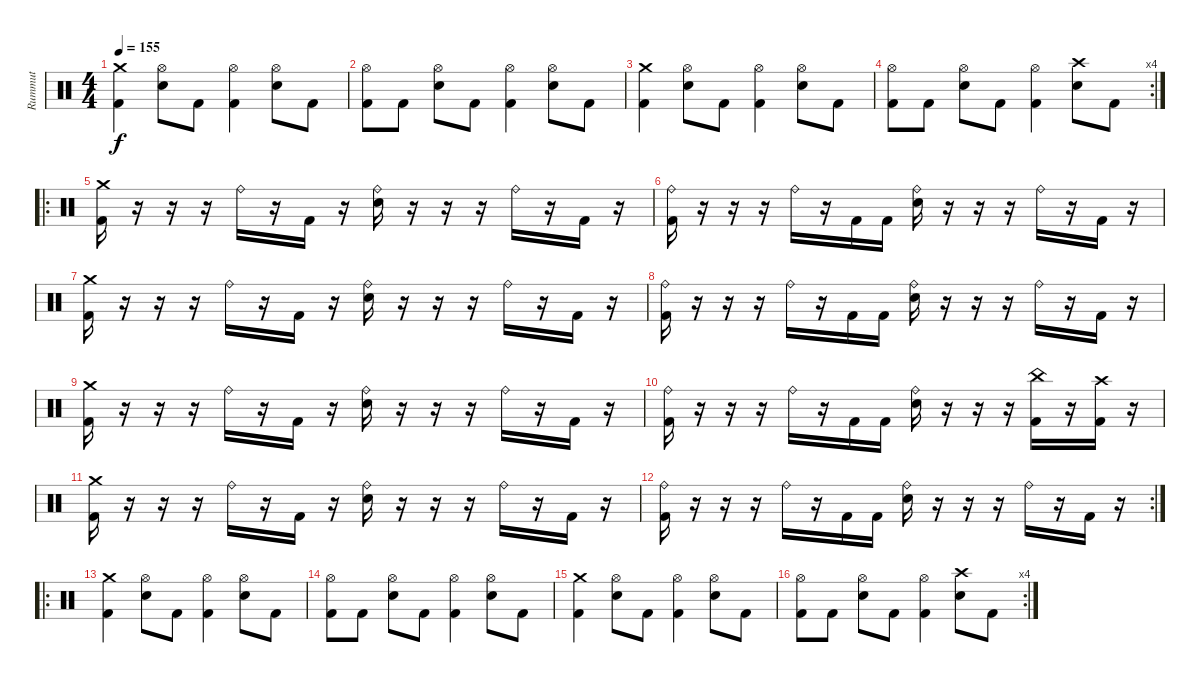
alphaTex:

\track ("Rummut" "Rummut") {instrument percussion}
\staff {score}
\articulation defaults
\ts (4 4)
\tempo 155
\clef neutral
\ks c
("Crash medium (hit)" "Kick (hit) 2").4{dy f} ("Hi-Hat (open)" "Electric Snare (hit)").8 "Kick (hit) 2".8 ("Hi-Hat (open)" "Kick (hit) 2").4 ("Hi-Hat (open)" "Electric Snare (hit)").8 "Kick (hit) 2".8 |
("Hi-Hat (open)" "Kick (hit) 2").8 "Kick (hit) 2".8 ("Hi-Hat (open)" "Electric Snare (hit)").8 "Kick (hit) 2".8 ("Hi-Hat (open)" "Kick (hit) 2").4 ("Hi-Hat (open)" "Electric Snare (hit)").8 "Kick (hit) 2".8 |
("Crash medium (hit)" "Kick (hit) 2").4 ("Hi-Hat (open)" "Electric Snare (hit)").8 "Kick (hit) 2".8 ("Hi-Hat (open)" "Kick (hit) 2").4 ("Hi-Hat (open)" "Electric Snare (hit)").8 "Kick (hit) 2".8 |
\rc 4
("Hi-Hat (open)" "Kick (hit) 2").8 "Kick (hit) 2".8 ("Hi-Hat (open)" "Electric Snare (hit)").8 "Kick (hit) 2".8 ("Hi-Hat (open)" "Kick (hit) 2").4 ("Crash high (hit)" "Electric Snare (hit)").8 "Kick (hit) 2".8 |
\ro
("Crash medium (hit)" "Kick (hit) 2").16 r.16 r.16 r.16 "Ride (bell)".16 r.16 "Kick (hit) 2".16 r.16 ("Ride (bell)" "Electric Snare (hit)").16 r.16 r.16 r.16 "Ride (bell)".16 r.16 "Kick (hit) 2".16 r.16 |
("Ride (bell)" "Kick (hit) 2").16 r.16 r.16 r.16 "Ride (bell)".16 r.16 "Kick (hit) 2".16 "Kick (hit) 2".16 ("Ride (bell)" "Electric Snare (hit)").16 r.16 r.16 r.16 "Ride (bell)".16 r.16 "Kick (hit) 2".16 r.16 |
("Crash medium (hit)" "Kick (hit) 2").16 r.16 r.16 r.16 "Ride (bell)".16 r.16 "Kick (hit) 2".16 r.16 ("Ride (bell)" "Electric Snare (hit)").16 r.16 r.16 r.16 "Ride (bell)".16 r.16 "Kick (hit) 2".16 r.16 |
("Ride (bell)" "Kick (hit) 2").16 r.16 r.16 r.16 "Ride (bell)".16 r.16 "Kick (hit) 2".16 "Kick (hit) 2".16 ("Ride (bell)" "Electric Snare (hit)").16 r.16 r.16 r.16 "Ride (bell)".16 r.16 "Kick (hit) 2".16 r.16 |
("Crash medium (hit)" "Kick (hit) 2").16 r.16 r.16 r.16 "Ride (bell)".16 r.16 "Kick (hit) 2".16 r.16 ("Ride (bell)" "Electric Snare (hit)").16 r.16 r.16 r.16 "Ride (bell)".16 r.16 "Kick (hit) 2".16 r.16 |
("Ride (bell)" "Kick (hit) 2").16 r.16 r.16 r.16 "Ride (bell)".16 r.16 "Kick (hit) 2".16 "Kick (hit) 2".16 ("Ride (bell)" "Electric Snare (hit)").16 r.16 r.16 r.16 ("China (hit)" "Kick (hit) 2").16 r.16 ("Crash high (hit)" "Kick (hit) 2").16 r.16 |
("Crash medium (hit)" "Kick (hit) 2").16 r.16 r.16 r.16 "Ride (bell)".16 r.16 "Kick (hit) 2".16 r.16 ("Ride (bell)" "Electric Snare (hit)").16 r.16 r.16 r.16 "Ride (bell)".16 r.16 "Kick (hit) 2".16 r.16 |
\rc 2
("Ride (bell)" "Kick (hit) 2").16 r.16 r.16 r.16 "Ride (bell)".16 r.16 "Kick (hit) 2".16 "Kick (hit) 2".16 ("Ride (bell)" "Electric Snare (hit)").16 r.16 r.16 r.16 "Ride (bell)".16 r.16 "Kick (hit) 2".16 r.16 |
\ro
("Crash medium (hit)" "Kick (hit) 2").4 ("Hi-Hat (open)" "Electric Snare (hit)").8 "Kick (hit) 2".8 ("Hi-Hat (open)" "Kick (hit) 2").4 ("Hi-Hat (open)" "Electric Snare (hit)").8 "Kick (hit) 2".8 |
("Hi-Hat (open)" "Kick (hit) 2").8 "Kick (hit) 2".8 ("Hi-Hat (open)" "Electric Snare (hit)").8 "Kick (hit) 2".8 ("Hi-Hat (open)" "Kick (hit) 2").4 ("Hi-Hat (open)" "Electric Snare (hit)").8 "Kick (hit) 2".8 |
("Crash medium (hit)" "Kick (hit) 2").4 ("Hi-Hat (open)" "Electric Snare (hit)").8 "Kick (hit) 2".8 ("Hi-Hat (open)" "Kick (hit) 2").4 ("Hi-Hat (open)" "Electric Snare (hit)").8 "Kick (hit) 2".8 |
\rc 4
("Hi-Hat (open)" "Kick (hit) 2").8 "Kick (hit) 2".8 ("Hi-Hat (open)" "Electric Snare (hit)").8 "Kick (hit) 2".8 ("Hi-Hat (open)" "Kick (hit) 2").4 ("Crash high (hit)" "Electric Snare (hit)").8 "Kick (hit) 2".8
